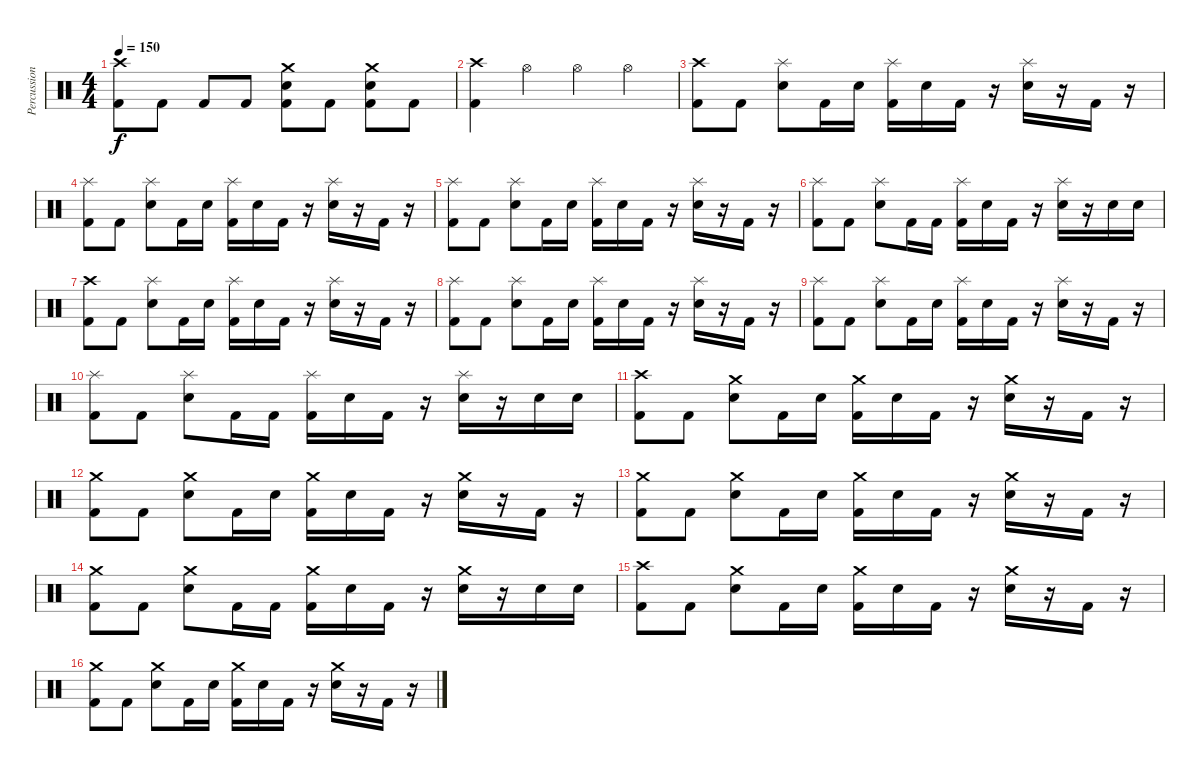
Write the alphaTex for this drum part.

\track ("Percussion" "Percussion") {instrument percussion}
\staff {score}
\articulation defaults
\ts (4 4)
\tempo 150
\clef neutral
\ks c
("Kick (hit) 2" "Crash high (hit)").8{dy f} "Kick (hit) 2".8 "Kick (hit) 2".8 "Kick (hit) 2".8 ("Electric Snare (hit)" "Kick (hit) 2" "Crash medium (hit)").8 "Kick (hit) 2".8 ("Kick (hit) 2" "Electric Snare (hit)" "Crash medium (hit)").8 "Kick (hit) 2".8 |
("Kick (hit) 2" "Crash high (hit)").4 "Hi-Hat (open)".4 "Hi-Hat (open)".4 "Hi-Hat (open)".4 |
("Kick (hit) 2" "Crash high (hit)").8 "Kick (hit) 2".8 ("Electric Snare (hit)" "Splash (hit)").8 "Kick (hit) 2".16 "Electric Snare (hit)".16 ("Kick (hit) 2" "Splash (hit)").16 "Electric Snare (hit)".16 "Kick (hit) 2".16 r.16 ("Electric Snare (hit)" "Splash (hit)").16 r.16 "Kick (hit) 2".16 r.16 |
("Kick (hit) 2" "Splash (hit)").8 "Kick (hit) 2".8 ("Electric Snare (hit)" "Splash (hit)").8 "Kick (hit) 2".16 "Electric Snare (hit)".16 ("Kick (hit) 2" "Splash (hit)").16 "Electric Snare (hit)".16 "Kick (hit) 2".16 r.16 ("Electric Snare (hit)" "Splash (hit)").16 r.16 "Kick (hit) 2".16 r.16 |
("Kick (hit) 2" "Splash (hit)").8 "Kick (hit) 2".8 ("Electric Snare (hit)" "Splash (hit)").8 "Kick (hit) 2".16 "Electric Snare (hit)".16 ("Kick (hit) 2" "Splash (hit)").16 "Electric Snare (hit)".16 "Kick (hit) 2".16 r.16 ("Electric Snare (hit)" "Splash (hit)").16 r.16 "Kick (hit) 2".16 r.16 |
("Kick (hit) 2" "Splash (hit)").8 "Kick (hit) 2".8 ("Electric Snare (hit)" "Splash (hit)").8 "Kick (hit) 2".16 "Kick (hit) 2".16 ("Kick (hit) 2" "Splash (hit)").16 "Electric Snare (hit)".16 "Kick (hit) 2".16 r.16 ("Electric Snare (hit)" "Splash (hit)").16 r.16 "Electric Snare (hit)".16 "Electric Snare (hit)".16 |
("Kick (hit) 2" "Crash high (hit)").8 "Kick (hit) 2".8 ("Electric Snare (hit)" "Splash (hit)").8 "Kick (hit) 2".16 "Electric Snare (hit)".16 ("Kick (hit) 2" "Splash (hit)").16 "Electric Snare (hit)".16 "Kick (hit) 2".16 r.16 ("Electric Snare (hit)" "Splash (hit)").16 r.16 "Kick (hit) 2".16 r.16 |
("Kick (hit) 2" "Splash (hit)").8 "Kick (hit) 2".8 ("Electric Snare (hit)" "Splash (hit)").8 "Kick (hit) 2".16 "Electric Snare (hit)".16 ("Kick (hit) 2" "Splash (hit)").16 "Electric Snare (hit)".16 "Kick (hit) 2".16 r.16 ("Electric Snare (hit)" "Splash (hit)").16 r.16 "Kick (hit) 2".16 r.16 |
("Kick (hit) 2" "Splash (hit)").8 "Kick (hit) 2".8 ("Electric Snare (hit)" "Splash (hit)").8 "Kick (hit) 2".16 "Electric Snare (hit)".16 ("Kick (hit) 2" "Splash (hit)").16 "Electric Snare (hit)".16 "Kick (hit) 2".16 r.16 ("Electric Snare (hit)" "Splash (hit)").16 r.16 "Kick (hit) 2".16 r.16 |
("Kick (hit) 2" "Splash (hit)").8 "Kick (hit) 2".8 ("Electric Snare (hit)" "Splash (hit)").8 "Kick (hit) 2".16 "Kick (hit) 2".16 ("Kick (hit) 2" "Splash (hit)").16 "Electric Snare (hit)".16 "Kick (hit) 2".16 r.16 ("Electric Snare (hit)" "Splash (hit)").16 r.16 "Electric Snare (hit)".16 "Electric Snare (hit)".16 |
("Kick (hit) 2" "Crash high (hit)").8 "Kick (hit) 2".8 ("Electric Snare (hit)" "Crash medium (hit)").8 "Kick (hit) 2".16 "Electric Snare (hit)".16 ("Kick (hit) 2" "Crash medium (hit)").16 "Electric Snare (hit)".16 "Kick (hit) 2".16 r.16 ("Electric Snare (hit)" "Crash medium (hit)").16 r.16 "Kick (hit) 2".16 r.16 |
("Kick (hit) 2" "Crash medium (hit)").8 "Kick (hit) 2".8 ("Electric Snare (hit)" "Crash medium (hit)").8 "Kick (hit) 2".16 "Electric Snare (hit)".16 ("Kick (hit) 2" "Crash medium (hit)").16 "Electric Snare (hit)".16 "Kick (hit) 2".16 r.16 ("Electric Snare (hit)" "Crash medium (hit)").16 r.16 "Kick (hit) 2".16 r.16 |
("Kick (hit) 2" "Crash medium (hit)").8 "Kick (hit) 2".8 ("Electric Snare (hit)" "Crash medium (hit)").8 "Kick (hit) 2".16 "Electric Snare (hit)".16 ("Kick (hit) 2" "Crash medium (hit)").16 "Electric Snare (hit)".16 "Kick (hit) 2".16 r.16 ("Electric Snare (hit)" "Crash medium (hit)").16 r.16 "Kick (hit) 2".16 r.16 |
("Kick (hit) 2" "Crash medium (hit)").8 "Kick (hit) 2".8 ("Electric Snare (hit)" "Crash medium (hit)").8 "Kick (hit) 2".16 "Kick (hit) 2".16 ("Kick (hit) 2" "Crash medium (hit)").16 "Electric Snare (hit)".16 "Kick (hit) 2".16 r.16 ("Electric Snare (hit)" "Crash medium (hit)").16 r.16 "Electric Snare (hit)".16 "Electric Snare (hit)".16 |
("Kick (hit) 2" "Crash high (hit)").8 "Kick (hit) 2".8 ("Electric Snare (hit)" "Crash medium (hit)").8 "Kick (hit) 2".16 "Electric Snare (hit)".16 ("Kick (hit) 2" "Crash medium (hit)").16 "Electric Snare (hit)".16 "Kick (hit) 2".16 r.16 ("Electric Snare (hit)" "Crash medium (hit)").16 r.16 "Kick (hit) 2".16 r.16 |
("Kick (hit) 2" "Crash medium (hit)").8 "Kick (hit) 2".8 ("Electric Snare (hit)" "Crash medium (hit)").8 "Kick (hit) 2".16 "Electric Snare (hit)".16 ("Kick (hit) 2" "Crash medium (hit)").16 "Electric Snare (hit)".16 "Kick (hit) 2".16 r.16 ("Electric Snare (hit)" "Crash medium (hit)").16 r.16 "Kick (hit) 2".16 r.16
